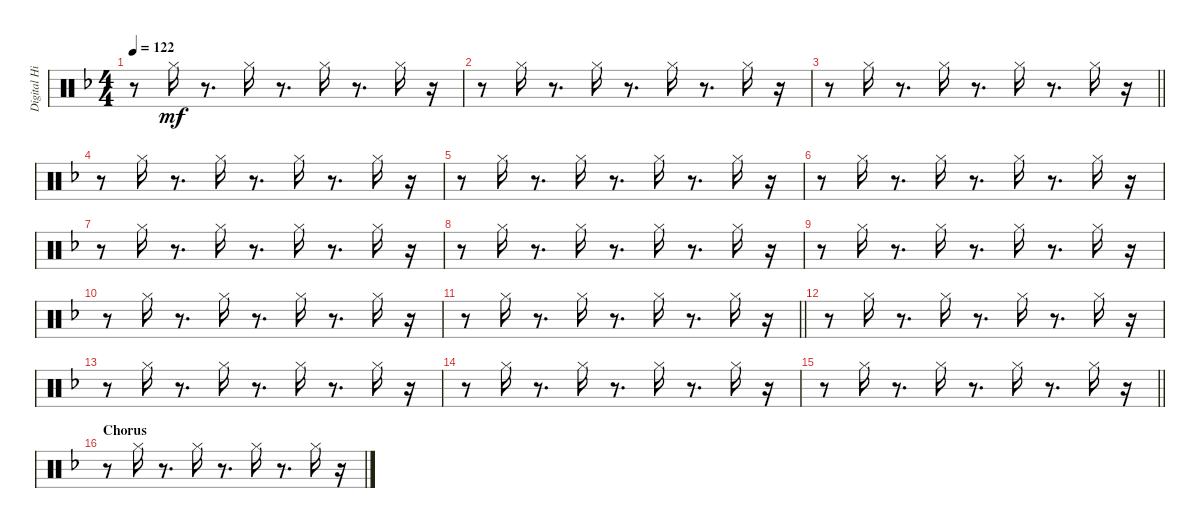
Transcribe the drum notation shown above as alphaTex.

\track ("Digital Hi-Hat (Stephen Morris)" "Digital Hi") {instrument percussion}
\staff {score}
\articulation defaults
\ts (4 4)
\tempo 122
\clef neutral
\ks f
r.8{dy mf} "Hi-Hat (closed)".16 r.8{d} "Hi-Hat (closed)".16 r.8{d} "Hi-Hat (closed)".16 r.8{d} "Hi-Hat (closed)".16 r.16 |
r.8 "Hi-Hat (closed)".16 r.8{d} "Hi-Hat (closed)".16 r.8{d} "Hi-Hat (closed)".16 r.8{d} "Hi-Hat (closed)".16 r.16 |
\barLineRight lightlight
r.8 "Hi-Hat (closed)".16 r.8{d} "Hi-Hat (closed)".16 r.8{d} "Hi-Hat (closed)".16 r.8{d} "Hi-Hat (closed)".16 r.16 |
r.8 "Hi-Hat (closed)".16 r.8{d} "Hi-Hat (closed)".16 r.8{d} "Hi-Hat (closed)".16 r.8{d} "Hi-Hat (closed)".16 r.16 |
r.8 "Hi-Hat (closed)".16 r.8{d} "Hi-Hat (closed)".16 r.8{d} "Hi-Hat (closed)".16 r.8{d} "Hi-Hat (closed)".16 r.16 |
r.8 "Hi-Hat (closed)".16 r.8{d} "Hi-Hat (closed)".16 r.8{d} "Hi-Hat (closed)".16 r.8{d} "Hi-Hat (closed)".16 r.16 |
r.8 "Hi-Hat (closed)".16 r.8{d} "Hi-Hat (closed)".16 r.8{d} "Hi-Hat (closed)".16 r.8{d} "Hi-Hat (closed)".16 r.16 |
r.8 "Hi-Hat (closed)".16 r.8{d} "Hi-Hat (closed)".16 r.8{d} "Hi-Hat (closed)".16 r.8{d} "Hi-Hat (closed)".16 r.16 |
r.8 "Hi-Hat (closed)".16 r.8{d} "Hi-Hat (closed)".16 r.8{d} "Hi-Hat (closed)".16 r.8{d} "Hi-Hat (closed)".16 r.16 |
r.8 "Hi-Hat (closed)".16 r.8{d} "Hi-Hat (closed)".16 r.8{d} "Hi-Hat (closed)".16 r.8{d} "Hi-Hat (closed)".16 r.16 |
\barLineRight lightlight
r.8 "Hi-Hat (closed)".16 r.8{d} "Hi-Hat (closed)".16 r.8{d} "Hi-Hat (closed)".16 r.8{d} "Hi-Hat (closed)".16 r.16 |
r.8 "Hi-Hat (closed)".16 r.8{d} "Hi-Hat (closed)".16 r.8{d} "Hi-Hat (closed)".16 r.8{d} "Hi-Hat (closed)".16 r.16 |
r.8 "Hi-Hat (closed)".16 r.8{d} "Hi-Hat (closed)".16 r.8{d} "Hi-Hat (closed)".16 r.8{d} "Hi-Hat (closed)".16 r.16 |
r.8 "Hi-Hat (closed)".16 r.8{d} "Hi-Hat (closed)".16 r.8{d} "Hi-Hat (closed)".16 r.8{d} "Hi-Hat (closed)".16 r.16 |
\barLineRight lightlight
r.8 "Hi-Hat (closed)".16 r.8{d} "Hi-Hat (closed)".16 r.8{d} "Hi-Hat (closed)".16 r.8{d} "Hi-Hat (closed)".16 r.16 |
\section ("" "Chorus")
r.8 "Hi-Hat (closed)".16 r.8{d} "Hi-Hat (closed)".16 r.8{d} "Hi-Hat (closed)".16 r.8{d} "Hi-Hat (closed)".16 r.16
